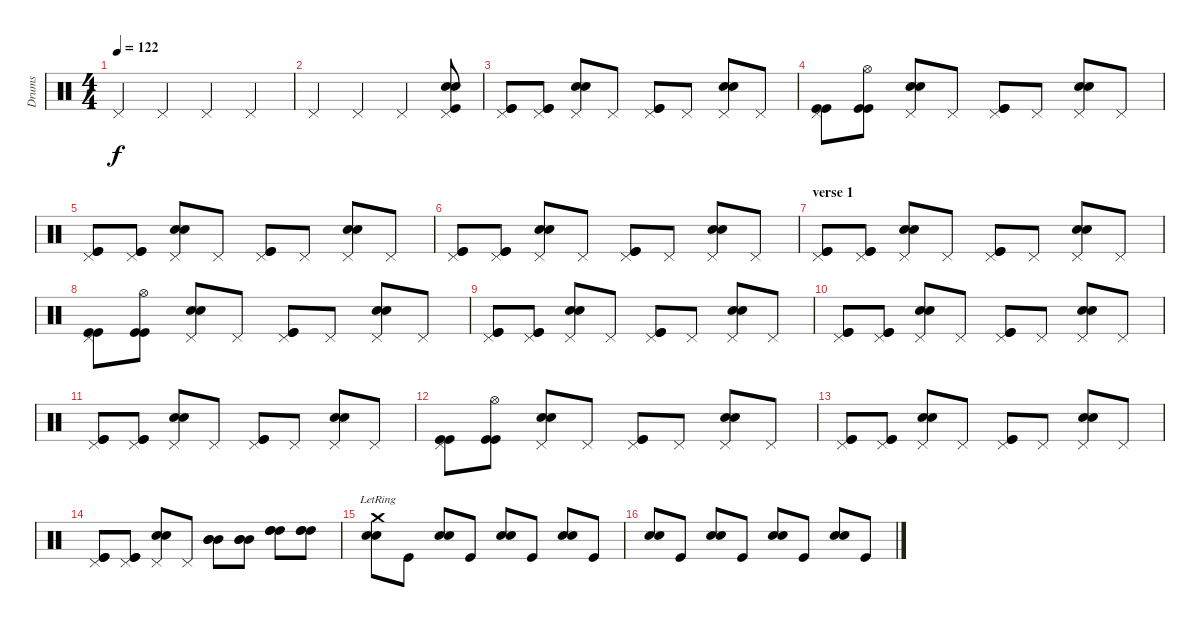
\track ("Drums" "Drums") {instrument percussion}
\staff {score}
\articulation defaults
\ts (4 4)
\tempo 122
\clef neutral
\ks c "Pedal Hi-Hat (hit)".4{dy f} "Pedal Hi-Hat (hit)".4 "Pedal Hi-Hat (hit)".4 "Pedal Hi-Hat (hit)".4
|
"Pedal Hi-Hat (hit)".4 "Pedal Hi-Hat (hit)".4 "Pedal Hi-Hat (hit)".4 ("Pedal Hi-Hat (hit)" "Snare (hit) 2" "Snare (hit) 2" "Kick (hit)").8 |
("Pedal Hi-Hat (hit)" "Kick (hit)" "Kick (hit)").8 ("Pedal Hi-Hat (hit)" "Kick (hit)" "Kick (hit)").8 ("Pedal Hi-Hat (hit)" "Snare (hit) 2" "Snare (hit) 2").8 "Pedal Hi-Hat (hit)".8 ("Pedal Hi-Hat (hit)" "Kick (hit)" "Kick (hit)").8 "Pedal Hi-Hat (hit)".8 ("Pedal Hi-Hat (hit)" "Snare (hit) 2" "Snare (hit) 2").8 "Pedal Hi-Hat (hit)".8 |
("Pedal Hi-Hat (hit)" "Kick (hit)" "Kick (hit)").8 ("Hi-Hat (open)" "Kick (hit)" "Kick (hit)").8 ("Pedal Hi-Hat (hit)" "Snare (hit) 2" "Snare (hit) 2").8 "Pedal Hi-Hat (hit)".8 ("Pedal Hi-Hat (hit)" "Kick (hit)" "Kick (hit)").8 "Pedal Hi-Hat (hit)".8 ("Pedal Hi-Hat (hit)" "Snare (hit) 2" "Snare (hit) 2").8 "Pedal Hi-Hat (hit)".8 |
("Pedal Hi-Hat (hit)" "Kick (hit)" "Kick (hit)").8 ("Pedal Hi-Hat (hit)" "Kick (hit)" "Kick (hit)").8 ("Pedal Hi-Hat (hit)" "Snare (hit) 2" "Snare (hit) 2").8 "Pedal Hi-Hat (hit)".8 ("Pedal Hi-Hat (hit)" "Kick (hit)" "Kick (hit)").8 "Pedal Hi-Hat (hit)".8 ("Pedal Hi-Hat (hit)" "Snare (hit) 2" "Snare (hit) 2").8 "Pedal Hi-Hat (hit)".8 |
("Pedal Hi-Hat (hit)" "Kick (hit)" "Kick (hit)").8 ("Pedal Hi-Hat (hit)" "Kick (hit)" "Kick (hit)").8 ("Pedal Hi-Hat (hit)" "Snare (hit) 2" "Snare (hit) 2").8 "Pedal Hi-Hat (hit)".8 ("Pedal Hi-Hat (hit)" "Kick (hit)" "Kick (hit)").8 "Pedal Hi-Hat (hit)".8 ("Pedal Hi-Hat (hit)" "Snare (hit) 2" "Snare (hit) 2").8 "Pedal Hi-Hat (hit)".8 |
\section ("" "verse 1")
("Pedal Hi-Hat (hit)" "Kick (hit)" "Kick (hit)").8 ("Pedal Hi-Hat (hit)" "Kick (hit)" "Kick (hit)").8 ("Pedal Hi-Hat (hit)" "Snare (hit) 2" "Snare (hit) 2").8 "Pedal Hi-Hat (hit)".8 ("Pedal Hi-Hat (hit)" "Kick (hit)" "Kick (hit)").8 "Pedal Hi-Hat (hit)".8 ("Pedal Hi-Hat (hit)" "Snare (hit) 2" "Snare (hit) 2").8 "Pedal Hi-Hat (hit)".8 |
("Pedal Hi-Hat (hit)" "Kick (hit)" "Kick (hit)").8 ("Hi-Hat (open)" "Kick (hit)" "Kick (hit)").8 ("Pedal Hi-Hat (hit)" "Snare (hit) 2" "Snare (hit) 2").8 "Pedal Hi-Hat (hit)".8 ("Pedal Hi-Hat (hit)" "Kick (hit)" "Kick (hit)").8 "Pedal Hi-Hat (hit)".8 ("Pedal Hi-Hat (hit)" "Snare (hit) 2" "Snare (hit) 2").8 "Pedal Hi-Hat (hit)".8 |
("Pedal Hi-Hat (hit)" "Kick (hit)" "Kick (hit)").8 ("Pedal Hi-Hat (hit)" "Kick (hit)" "Kick (hit)").8 ("Pedal Hi-Hat (hit)" "Snare (hit) 2" "Snare (hit) 2").8 "Pedal Hi-Hat (hit)".8 ("Pedal Hi-Hat (hit)" "Kick (hit)" "Kick (hit)").8 "Pedal Hi-Hat (hit)".8 ("Pedal Hi-Hat (hit)" "Snare (hit) 2" "Snare (hit) 2").8 "Pedal Hi-Hat (hit)".8 |
("Pedal Hi-Hat (hit)" "Kick (hit)" "Kick (hit)").8 ("Pedal Hi-Hat (hit)" "Kick (hit)" "Kick (hit)").8 ("Pedal Hi-Hat (hit)" "Snare (hit) 2" "Snare (hit) 2").8 "Pedal Hi-Hat (hit)".8 ("Pedal Hi-Hat (hit)" "Kick (hit)" "Kick (hit)").8 "Pedal Hi-Hat (hit)".8 ("Pedal Hi-Hat (hit)" "Snare (hit) 2" "Snare (hit) 2").8 "Pedal Hi-Hat (hit)".8 |
("Pedal Hi-Hat (hit)" "Kick (hit)" "Kick (hit)").8 ("Pedal Hi-Hat (hit)" "Kick (hit)" "Kick (hit)").8 ("Pedal Hi-Hat (hit)" "Snare (hit) 2" "Snare (hit) 2").8 "Pedal Hi-Hat (hit)".8 ("Pedal Hi-Hat (hit)" "Kick (hit)" "Kick (hit)").8 "Pedal Hi-Hat (hit)".8 ("Pedal Hi-Hat (hit)" "Snare (hit) 2" "Snare (hit) 2").8 "Pedal Hi-Hat (hit)".8 |
("Pedal Hi-Hat (hit)" "Kick (hit)" "Kick (hit)").8 ("Hi-Hat (open)" "Kick (hit)" "Kick (hit)").8 ("Pedal Hi-Hat (hit)" "Snare (hit) 2" "Snare (hit) 2").8 "Pedal Hi-Hat (hit)".8 ("Pedal Hi-Hat (hit)" "Kick (hit)" "Kick (hit)").8 "Pedal Hi-Hat (hit)".8 ("Pedal Hi-Hat (hit)" "Snare (hit) 2" "Snare (hit) 2").8 "Pedal Hi-Hat (hit)".8 |
("Pedal Hi-Hat (hit)" "Kick (hit)" "Kick (hit)").8 ("Pedal Hi-Hat (hit)" "Kick (hit)" "Kick (hit)").8 ("Pedal Hi-Hat (hit)" "Snare (hit) 2" "Snare (hit) 2").8 "Pedal Hi-Hat (hit)".8 ("Pedal Hi-Hat (hit)" "Kick (hit)" "Kick (hit)").8 "Pedal Hi-Hat (hit)".8 ("Pedal Hi-Hat (hit)" "Snare (hit) 2" "Snare (hit) 2").8 "Pedal Hi-Hat (hit)".8 |
("Pedal Hi-Hat (hit)" "Kick (hit)" "Kick (hit)").8 ("Pedal Hi-Hat (hit)" "Kick (hit)" "Kick (hit)").8 ("Pedal Hi-Hat (hit)" "Snare (hit) 2" "Snare (hit) 2").8 "Pedal Hi-Hat (hit)".8 ("Mid Tom (hit)" "Mid Tom (hit)" "Mid Tom (hit)").8 ("Mid Tom (hit)" "Mid Tom (hit)" "Mid Tom (hit)").8 ("High Tom (hit)" "High Tom (hit)" "High Tom (hit)").8 ("High Tom (hit)" "High Tom (hit)" "High Tom (hit)").8 |
("Snare (hit) 2" "Snare (hit) 2" "Crash medium (hit)"{lr}).8 "Kick (hit)".8 ("Snare (hit) 2" "Snare (hit) 2").8 "Kick (hit)".8 ("Snare (hit) 2" "Snare (hit) 2").8 "Kick (hit)".8 ("Snare (hit) 2" "Snare (hit) 2").8 "Kick (hit)".8 |
("Snare (hit) 2" "Snare (hit) 2").8 "Kick (hit)".8 ("Snare (hit) 2" "Snare (hit) 2").8 "Kick (hit)".8 ("Snare (hit) 2" "Snare (hit) 2").8 "Kick (hit)".8 ("Snare (hit) 2" "Snare (hit) 2").8 "Kick (hit)".8
